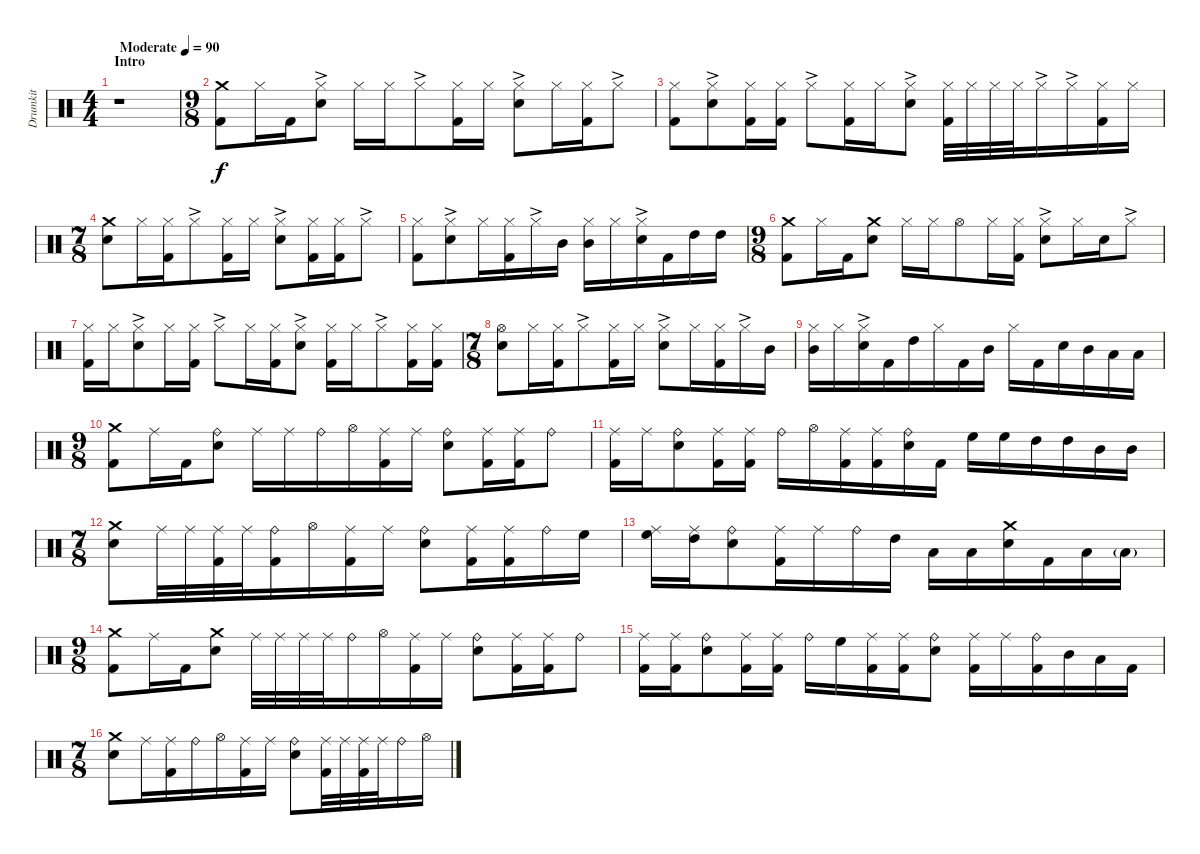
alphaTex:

\track ("Drumkit" "Drumkit") {instrument percussion}
\staff {score}
\articulation defaults
\ts (4 4)
\section ("" "Intro")
\tempo (90 "Moderate")
\clef neutral
\ks c
r.1{dy f} |
\ts (9 8)
("Crash medium (hit)" "Kick (hit) 2").8 "Hi-Hat (closed)".16 "Kick (hit) 2".16 ("Hi-Hat (closed)"{ac} "Snare (hit) 2").8 "Hi-Hat (closed)".16 "Hi-Hat (closed)".16 "Hi-Hat (closed)"{ac}.8 ("Hi-Hat (closed)" "Kick (hit) 2").16 "Hi-Hat (closed)".16 ("Hi-Hat (closed)"{ac} "Snare (hit) 2").8 "Hi-Hat (closed)".16 ("Hi-Hat (closed)" "Kick (hit) 2").16 "Hi-Hat (closed)"{ac}.8 |
("Hi-Hat (closed)" "Kick (hit) 2").8 ("Hi-Hat (closed)"{ac} "Snare (hit) 2").8 ("Hi-Hat (closed)" "Kick (hit) 2").16 ("Hi-Hat (closed)" "Kick (hit) 2").16 "Hi-Hat (closed)"{ac}.8 ("Hi-Hat (closed)" "Kick (hit) 2").16 "Hi-Hat (closed)".16 ("Hi-Hat (closed)"{ac} "Snare (hit) 2").8 ("Hi-Hat (closed)" "Kick (hit) 2").32 "Hi-Hat (closed)".32 "Hi-Hat (closed)".32 "Hi-Hat (closed)".32 "Hi-Hat (closed)"{ac}.16 "Hi-Hat (closed)"{ac}.16 ("Hi-Hat (closed)" "Kick (hit) 2").16 "Hi-Hat (closed)".16 |
\ts (7 8)
("Crash medium (hit)" "Snare (hit) 2").8 "Hi-Hat (closed)".16 ("Hi-Hat (closed)" "Kick (hit) 2").16 "Hi-Hat (closed)"{ac}.8 ("Hi-Hat (closed)" "Kick (hit) 2").16 "Hi-Hat (closed)".16 ("Hi-Hat (closed)"{ac} "Snare (hit) 2").8 ("Hi-Hat (closed)" "Kick (hit) 2").16 ("Hi-Hat (closed)" "Kick (hit) 2").16 "Hi-Hat (closed)"{ac}.8 |
("Hi-Hat (closed)" "Kick (hit) 2").8 ("Hi-Hat (closed)"{ac} "Snare (hit) 2").8 "Hi-Hat (closed)".16 ("Hi-Hat (closed)" "Kick (hit) 2").16 "Hi-Hat (closed)"{ac}.16 "Mid Tom (hit)".16 ("Hi-Hat (closed)" "Mid Tom (hit)").16 "Hi-Hat (closed)".16 ("Hi-Hat (closed)"{ac} "Snare (hit) 2").16 "Kick (hit) 2".16 "High Tom (hit)".16 "High Tom (hit)".16 |
\ts (9 8)
("Crash medium (hit)" "Kick (hit) 2").8 "Hi-Hat (closed)".16 "Kick (hit) 2".16 ("Crash medium (hit)" "Snare (hit) 2").8 "Hi-Hat (closed)".16 "Hi-Hat (closed)".16 "Hi-Hat (open)".8 "Hi-Hat (closed)".16 ("Hi-Hat (closed)" "Kick (hit) 2").16 ("Hi-Hat (closed)"{ac} "Snare (hit) 2").8 "Hi-Hat (closed)".16 "Snare (hit) 2".16 "Hi-Hat (closed)"{ac}.8 |
("Hi-Hat (closed)" "Kick (hit) 2").16 "Hi-Hat (closed)".16 ("Hi-Hat (closed)"{ac} "Snare (hit) 2").8 "Hi-Hat (closed)".16 ("Hi-Hat (closed)" "Kick (hit) 2").16 "Hi-Hat (closed)"{ac}.8 "Hi-Hat (closed)".16 ("Hi-Hat (closed)" "Kick (hit) 2").16 ("Hi-Hat (closed)"{ac} "Snare (hit) 2").8 ("Hi-Hat (closed)" "Kick (hit) 2").16 "Hi-Hat (closed)".16 "Hi-Hat (closed)"{ac}.8 ("Hi-Hat (closed)" "Kick (hit) 2").16 ("Hi-Hat (closed)" "Kick (hit) 2").16 |
\ts (7 8)
("Hi-Hat (open)" "Snare (hit) 2").8 "Hi-Hat (closed)".16 ("Hi-Hat (closed)" "Kick (hit) 2").16 "Hi-Hat (closed)"{ac}.8 ("Hi-Hat (closed)" "Kick (hit) 2").16 "Hi-Hat (closed)".16 ("Hi-Hat (closed)"{ac} "Snare (hit) 2").8 "Hi-Hat (closed)".16 ("Hi-Hat (closed)" "Kick (hit) 2").16 "Hi-Hat (closed)"{ac}.16 "Mid Tom (hit)".16 |
("Hi-Hat (closed)" "Mid Tom (hit)").16 "Hi-Hat (closed)".16 ("Hi-Hat (closed)"{ac} "Snare (hit) 2").16 "Kick (hit) 2".16 "High Tom (hit)".16 "Hi-Hat (closed)".16 "Kick (hit) 2".16 "Mid Tom (hit)".16 "Hi-Hat (closed)".16 "Kick (hit) 2".16 "Snare (hit) 2".16 "Mid Tom (hit)".16 "Low Tom (hit)".16 "Low Tom (hit)".16 |
\ts (9 8)
("Crash medium (hit)" "Kick (hit) 2").8 "Ride (middle)".16 "Kick (hit) 2".16 ("Ride (bell)" "Snare (hit) 2").8 "Ride (middle)".16 "Ride (middle)".16 "Ride (bell)".16 "Hi-Hat (open)".16 ("Ride (middle)" "Kick (hit) 2").16 "Ride (middle)".16 ("Ride (bell)" "Snare (hit) 2").8 ("Ride (middle)" "Kick (hit) 2").16 ("Ride (middle)" "Kick (hit) 2").16 "Ride (bell)".8 |
("Ride (middle)" "Kick (hit) 2").16 "Ride (middle)".16 ("Ride (bell)" "Snare (hit) 2").8 ("Ride (middle)" "Kick (hit) 2").16 ("Ride (middle)" "Kick (hit) 2").16 "Ride (bell)".16 "Hi-Hat (open)".16 ("Ride (middle)" "Kick (hit) 2").16 ("Ride (middle)" "Kick (hit) 2").16 ("Ride (bell)" "Snare (hit) 2").16 "Kick (hit) 2".16 "High Floor Tom (hit)".16 "High Floor Tom (hit)".16 "High Tom (hit)".16 "High Tom (hit)".16 "Mid Tom (hit)".16 "Mid Tom (hit)".16 |
\ts (7 8)
("Crash medium (hit)" "Snare (hit) 2").8 "Ride (middle)".32 "Ride (middle)".32 ("Ride (middle)" "Kick (hit) 2").32 "Ride (middle)".32 ("Ride (bell)" "Kick (hit) 2").16 "Hi-Hat (open)".16 ("Ride (middle)" "Kick (hit) 2").16 "Ride (middle)".16 ("Ride (bell)" "Snare (hit) 2").8 ("Ride (middle)" "Kick (hit) 2").16 ("Ride (middle)" "Kick (hit) 2").16 "Ride (bell)".16 "High Floor Tom (hit)".16 |
("Ride (middle)" "High Floor Tom (hit)").16 ("Ride (middle)" "High Tom (hit)").16 ("Ride (bell)" "Snare (hit) 2").8 ("Ride (middle)" "Kick (hit) 2").16 "Ride (middle)".16 "Ride (bell)".16 "High Tom (hit)".16 "Low Tom (hit)".16 "Low Tom (hit)".16 ("Crash medium (hit)" "Snare (hit) 2").16 "Kick (hit) 2".16 "Low Tom (hit)".16 "Low Tom (hit)"{g}.16 |
\ts (9 8)
("Crash medium (hit)" "Kick (hit) 2").8 "Ride (middle)".16 "Kick (hit) 2".16 ("Crash medium (hit)" "Snare (hit) 2").8 "Ride (middle)".32 "Ride (middle)".32 "Ride (middle)".32 "Ride (middle)".32 "Ride (bell)".16 "Hi-Hat (open)".16 ("Ride (middle)" "Kick (hit) 2").16 "Ride (middle)".16 ("Ride (bell)" "Snare (hit) 2").8 ("Ride (middle)" "Kick (hit) 2").16 ("Ride (middle)" "Kick (hit) 2").16 "Ride (bell)".8 |
("Ride (middle)" "Kick (hit) 2").16 ("Ride (middle)" "Kick (hit) 2").16 ("Ride (bell)" "Snare (hit) 2").8 ("Ride (middle)" "Kick (hit) 2").16 ("Ride (middle)" "Kick (hit) 2").16 "Ride (bell)".16 "High Floor Tom (hit)".16 ("Ride (middle)" "Kick (hit) 2").16 ("Ride (middle)" "Kick (hit) 2").16 ("Ride (bell)" "Snare (hit) 2").8 ("Ride (middle)" "Kick (hit) 2").16 "Ride (middle)".16 ("Ride (bell)" "Kick (hit) 2").16 "Mid Tom (hit)".16 "Low Tom (hit)".16 "Kick (hit) 2".16 |
\ts (7 8)
("Crash medium (hit)" "Snare (hit) 2").8 "Ride (middle)".16 ("Ride (middle)" "Kick (hit) 2").16 "Ride (bell)".16 "Hi-Hat (open)".16 ("Ride (middle)" "Kick (hit) 2").16 "Ride (middle)".16 ("Ride (bell)" "Snare (hit) 2").8 ("Ride (middle)" "Kick (hit) 2").32 "Ride (middle)".32 ("Ride (middle)" "Kick (hit) 2").32 "Ride (middle)".32 "Ride (bell)".16 "Hi-Hat (open)".16
